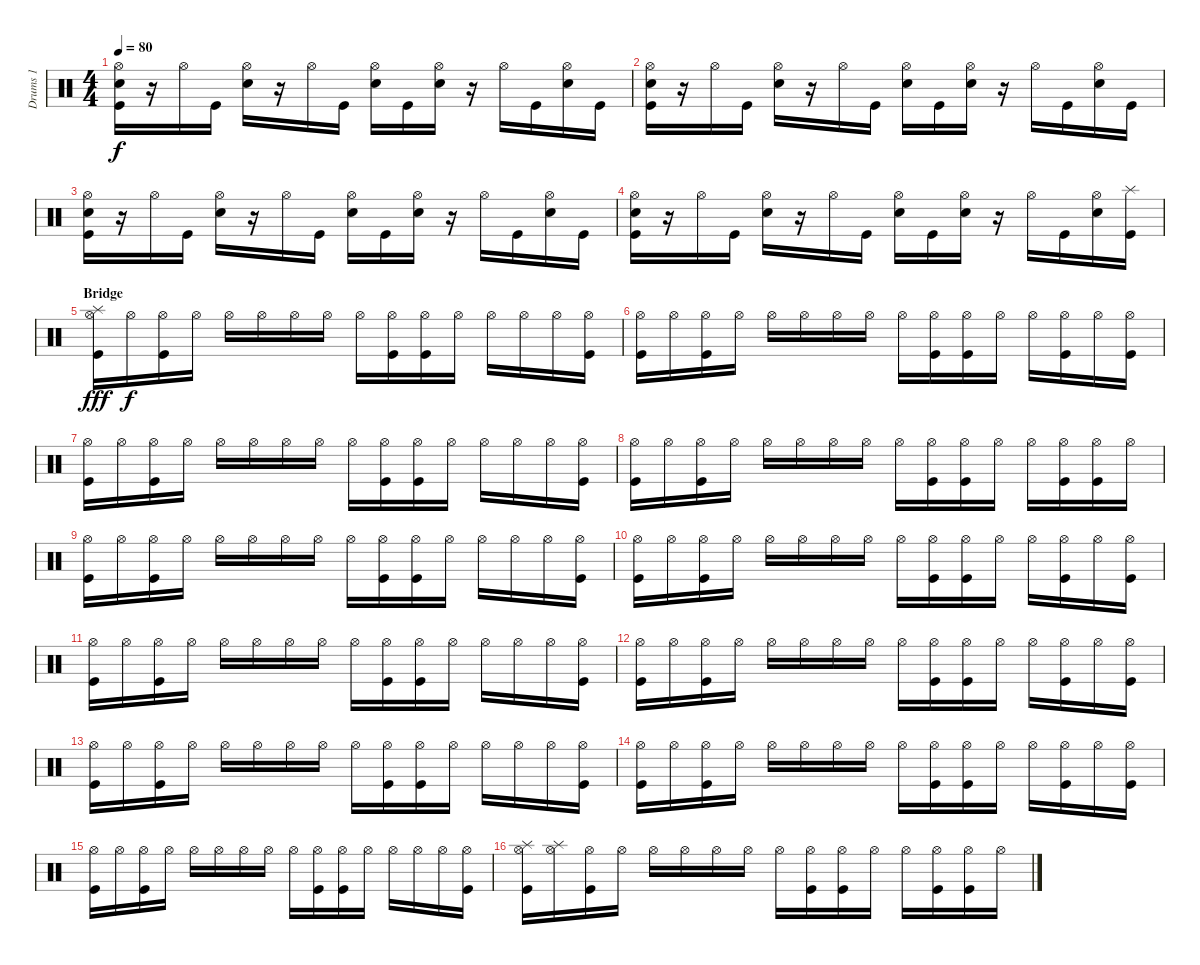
\track ("Drums 1" "Drums 1") {instrument percussion}
\staff {score}
\articulation defaults
\ts (4 4)
\tempo 80
\clef neutral
\ks c
("Hi-Hat (open)" "Electric Snare (hit)" "Kick (hit)").16{dy f} r.16 "Hi-Hat (open)".16 "Kick (hit)".16 ("Hi-Hat (open)" "Electric Snare (hit)").16 r.16 "Hi-Hat (open)".16 "Kick (hit)".16 ("Hi-Hat (open)" "Electric Snare (hit)").16 "Kick (hit)".16 ("Hi-Hat (open)" "Electric Snare (hit)").16 r.16 "Hi-Hat (open)".16 "Kick (hit)".16 ("Hi-Hat (open)" "Electric Snare (hit)").16 "Kick (hit)".16 |
("Hi-Hat (open)" "Electric Snare (hit)" "Kick (hit)").16 r.16 "Hi-Hat (open)".16 "Kick (hit)".16 ("Hi-Hat (open)" "Electric Snare (hit)").16 r.16 "Hi-Hat (open)".16 "Kick (hit)".16 ("Hi-Hat (open)" "Electric Snare (hit)").16 "Kick (hit)".16 ("Hi-Hat (open)" "Electric Snare (hit)").16 r.16 "Hi-Hat (open)".16 "Kick (hit)".16 ("Hi-Hat (open)" "Electric Snare (hit)").16 "Kick (hit)".16 |
("Hi-Hat (open)" "Electric Snare (hit)" "Kick (hit)").16 r.16 "Hi-Hat (open)".16 "Kick (hit)".16 ("Hi-Hat (open)" "Electric Snare (hit)").16 r.16 "Hi-Hat (open)".16 "Kick (hit)".16 ("Hi-Hat (open)" "Electric Snare (hit)").16 "Kick (hit)".16 ("Hi-Hat (open)" "Electric Snare (hit)").16 r.16 "Hi-Hat (open)".16 "Kick (hit)".16 ("Hi-Hat (open)" "Electric Snare (hit)").16 "Kick (hit)".16 |
("Hi-Hat (open)" "Electric Snare (hit)" "Kick (hit)").16 r.16 "Hi-Hat (open)".16 "Kick (hit)".16 ("Hi-Hat (open)" "Electric Snare (hit)").16 r.16 "Hi-Hat (open)".16 "Kick (hit)".16 ("Hi-Hat (open)" "Electric Snare (hit)").16 "Kick (hit)".16 ("Hi-Hat (open)" "Electric Snare (hit)").16 r.16 "Hi-Hat (open)".16 "Kick (hit)".16 ("Hi-Hat (open)" "Electric Snare (hit)").16 ("Splash (hit)" "Kick (hit)").16 |
\section ("" "Bridge")
("Splash (hit)" "Hi-Hat (open)" "Kick (hit)").16{dy fff volume 11} "Hi-Hat (open)".16{dy f} ("Hi-Hat (open)" "Kick (hit)").16 "Hi-Hat (open)".16 "Hi-Hat (open)".16 "Hi-Hat (open)".16 "Hi-Hat (open)".16 "Hi-Hat (open)".16 "Hi-Hat (open)".16 ("Hi-Hat (open)" "Kick (hit)").16 ("Hi-Hat (open)" "Kick (hit)").16 "Hi-Hat (open)".16 "Hi-Hat (open)".16 "Hi-Hat (open)".16 "Hi-Hat (open)".16 ("Hi-Hat (open)" "Kick (hit)").16 |
("Hi-Hat (open)" "Kick (hit)").16 "Hi-Hat (open)".16 ("Hi-Hat (open)" "Kick (hit)").16 "Hi-Hat (open)".16 "Hi-Hat (open)".16 "Hi-Hat (open)".16 "Hi-Hat (open)".16 "Hi-Hat (open)".16 "Hi-Hat (open)".16 ("Hi-Hat (open)" "Kick (hit)").16 ("Hi-Hat (open)" "Kick (hit)").16 "Hi-Hat (open)".16 "Hi-Hat (open)".16 ("Hi-Hat (open)" "Kick (hit)").16 "Hi-Hat (open)".16 ("Hi-Hat (open)" "Kick (hit)").16 |
("Hi-Hat (open)" "Kick (hit)").16 "Hi-Hat (open)".16 ("Hi-Hat (open)" "Kick (hit)").16 "Hi-Hat (open)".16 "Hi-Hat (open)".16 "Hi-Hat (open)".16 "Hi-Hat (open)".16 "Hi-Hat (open)".16 "Hi-Hat (open)".16 ("Hi-Hat (open)" "Kick (hit)").16 ("Hi-Hat (open)" "Kick (hit)").16 "Hi-Hat (open)".16 "Hi-Hat (open)".16 "Hi-Hat (open)".16 "Hi-Hat (open)".16 ("Hi-Hat (open)" "Kick (hit)").16 |
("Hi-Hat (open)" "Kick (hit)").16 "Hi-Hat (open)".16 ("Hi-Hat (open)" "Kick (hit)").16 "Hi-Hat (open)".16 "Hi-Hat (open)".16 "Hi-Hat (open)".16 "Hi-Hat (open)".16 "Hi-Hat (open)".16 "Hi-Hat (open)".16 ("Hi-Hat (open)" "Kick (hit)").16 ("Hi-Hat (open)" "Kick (hit)").16 "Hi-Hat (open)".16 "Hi-Hat (open)".16 ("Hi-Hat (open)" "Kick (hit)").16 ("Hi-Hat (open)" "Kick (hit)").16 "Hi-Hat (open)".16 |
("Hi-Hat (open)" "Kick (hit)").16 "Hi-Hat (open)".16 ("Hi-Hat (open)" "Kick (hit)").16 "Hi-Hat (open)".16 "Hi-Hat (open)".16 "Hi-Hat (open)".16 "Hi-Hat (open)".16 "Hi-Hat (open)".16 "Hi-Hat (open)".16 ("Hi-Hat (open)" "Kick (hit)").16 ("Hi-Hat (open)" "Kick (hit)").16 "Hi-Hat (open)".16 "Hi-Hat (open)".16 "Hi-Hat (open)".16 "Hi-Hat (open)".16 ("Hi-Hat (open)" "Kick (hit)").16 |
("Hi-Hat (open)" "Kick (hit)").16 "Hi-Hat (open)".16 ("Hi-Hat (open)" "Kick (hit)").16 "Hi-Hat (open)".16 "Hi-Hat (open)".16 "Hi-Hat (open)".16 "Hi-Hat (open)".16 "Hi-Hat (open)".16 "Hi-Hat (open)".16 ("Hi-Hat (open)" "Kick (hit)").16 ("Hi-Hat (open)" "Kick (hit)").16 "Hi-Hat (open)".16 "Hi-Hat (open)".16 ("Hi-Hat (open)" "Kick (hit)").16 "Hi-Hat (open)".16 ("Hi-Hat (open)" "Kick (hit)").16 |
("Hi-Hat (open)" "Kick (hit)").16 "Hi-Hat (open)".16 ("Hi-Hat (open)" "Kick (hit)").16 "Hi-Hat (open)".16 "Hi-Hat (open)".16 "Hi-Hat (open)".16 "Hi-Hat (open)".16 "Hi-Hat (open)".16 "Hi-Hat (open)".16 ("Hi-Hat (open)" "Kick (hit)").16 ("Hi-Hat (open)" "Kick (hit)").16 "Hi-Hat (open)".16 "Hi-Hat (open)".16 "Hi-Hat (open)".16 "Hi-Hat (open)".16 ("Hi-Hat (open)" "Kick (hit)").16 |
("Hi-Hat (open)" "Kick (hit)").16 "Hi-Hat (open)".16 ("Hi-Hat (open)" "Kick (hit)").16 "Hi-Hat (open)".16 "Hi-Hat (open)".16 "Hi-Hat (open)".16 "Hi-Hat (open)".16 "Hi-Hat (open)".16 "Hi-Hat (open)".16 ("Hi-Hat (open)" "Kick (hit)").16 ("Hi-Hat (open)" "Kick (hit)").16 "Hi-Hat (open)".16 "Hi-Hat (open)".16 ("Hi-Hat (open)" "Kick (hit)").16 "Hi-Hat (open)".16 ("Hi-Hat (open)" "Kick (hit)").16 |
("Hi-Hat (open)" "Kick (hit)").16 "Hi-Hat (open)".16 ("Hi-Hat (open)" "Kick (hit)").16 "Hi-Hat (open)".16 "Hi-Hat (open)".16 "Hi-Hat (open)".16 "Hi-Hat (open)".16 "Hi-Hat (open)".16 "Hi-Hat (open)".16 ("Hi-Hat (open)" "Kick (hit)").16 ("Hi-Hat (open)" "Kick (hit)").16 "Hi-Hat (open)".16 "Hi-Hat (open)".16 "Hi-Hat (open)".16 "Hi-Hat (open)".16 ("Hi-Hat (open)" "Kick (hit)").16 |
("Hi-Hat (open)" "Kick (hit)").16 "Hi-Hat (open)".16 ("Hi-Hat (open)" "Kick (hit)").16 "Hi-Hat (open)".16 "Hi-Hat (open)".16 "Hi-Hat (open)".16 "Hi-Hat (open)".16 "Hi-Hat (open)".16 "Hi-Hat (open)".16 ("Hi-Hat (open)" "Kick (hit)").16 ("Hi-Hat (open)" "Kick (hit)").16 "Hi-Hat (open)".16 "Hi-Hat (open)".16 ("Hi-Hat (open)" "Kick (hit)").16 "Hi-Hat (open)".16 ("Hi-Hat (open)" "Kick (hit)").16 |
("Hi-Hat (open)" "Kick (hit)").16 "Hi-Hat (open)".16 ("Hi-Hat (open)" "Kick (hit)").16 "Hi-Hat (open)".16 "Hi-Hat (open)".16 "Hi-Hat (open)".16 "Hi-Hat (open)".16 "Hi-Hat (open)".16 "Hi-Hat (open)".16 ("Hi-Hat (open)" "Kick (hit)").16 ("Hi-Hat (open)" "Kick (hit)").16 "Hi-Hat (open)".16 "Hi-Hat (open)".16 "Hi-Hat (open)".16 "Hi-Hat (open)".16 ("Hi-Hat (open)" "Kick (hit)").16 |
("Splash (hit)" "Hi-Hat (open)" "Kick (hit)").16 ("Splash (hit)" "Hi-Hat (open)").16 ("Hi-Hat (open)" "Kick (hit)").16 "Hi-Hat (open)".16 "Hi-Hat (open)".16 "Hi-Hat (open)".16 "Hi-Hat (open)".16 "Hi-Hat (open)".16 "Hi-Hat (open)".16 ("Hi-Hat (open)" "Kick (hit)").16 ("Hi-Hat (open)" "Kick (hit)").16 "Hi-Hat (open)".16 "Hi-Hat (open)".16 ("Hi-Hat (open)" "Kick (hit)").16 ("Hi-Hat (open)" "Kick (hit)").16 "Hi-Hat (open)".16
